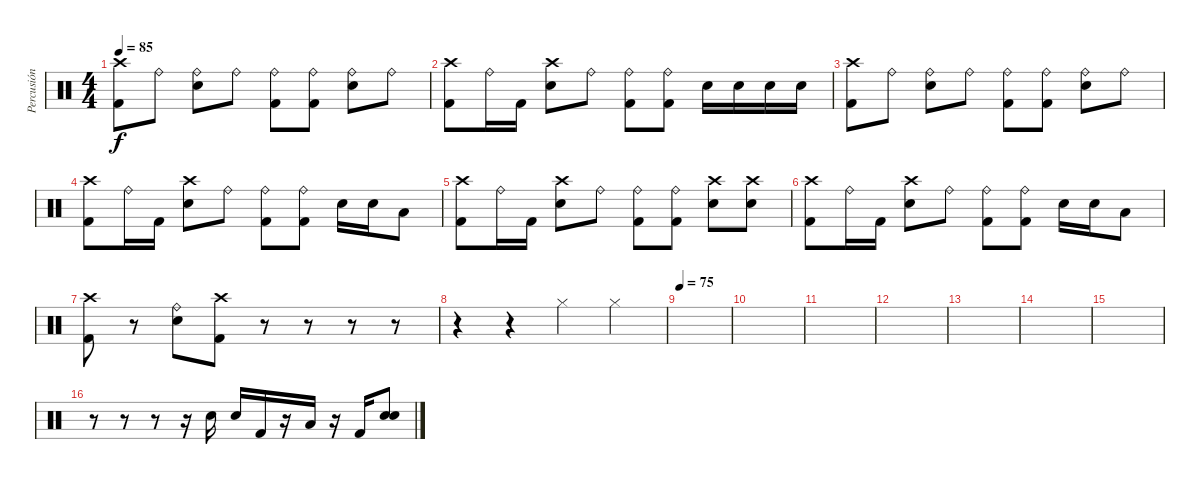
\track ("Percusión" "Percusión") {instrument percussion}
\staff {score}
\articulation defaults
\ts (4 4)
\tempo 85
\clef neutral
\ks c
("Crash high (hit)" "Kick (hit) 2").8{dy f} "Ride (bell)".8 ("Ride (bell)" "Electric Snare (hit)").8 "Ride (bell)".8 ("Ride (bell)" "Kick (hit) 2").8 ("Ride (bell)" "Kick (hit) 2").8 ("Ride (bell)" "Electric Snare (hit)").8 "Ride (bell)".8 |
("Crash high (hit)" "Kick (hit) 2").8 "Ride (bell)".16 "Kick (hit) 2".16 ("Crash high (hit)" "Electric Snare (hit)").8 "Ride (bell)".8 ("Ride (bell)" "Kick (hit) 2").8 ("Ride (bell)" "Kick (hit) 2").8 "Electric Snare (hit)".16 "Electric Snare (hit)".16 "Electric Snare (hit)".16 "Electric Snare (hit)".16 |
("Crash high (hit)" "Kick (hit) 2").8 "Ride (bell)".8 ("Ride (bell)" "Electric Snare (hit)").8 "Ride (bell)".8 ("Ride (bell)" "Kick (hit) 2").8 ("Ride (bell)" "Kick (hit) 2").8 ("Ride (bell)" "Electric Snare (hit)").8 "Ride (bell)".8 |
("Crash high (hit)" "Kick (hit) 2").8 "Ride (bell)".16 "Kick (hit) 2".16 ("Crash high (hit)" "Electric Snare (hit)").8 "Ride (bell)".8 ("Ride (bell)" "Kick (hit) 2").8 ("Ride (bell)" "Kick (hit) 2").8 "Electric Snare (hit)".16 "Electric Snare (hit)".16 "Low Tom (hit)".8 |
("Crash high (hit)" "Kick (hit) 2").8 "Ride (bell)".16 "Kick (hit) 2".16 ("Crash high (hit)" "Electric Snare (hit)").8 "Ride (bell)".8 ("Ride (bell)" "Kick (hit) 2").8 ("Ride (bell)" "Kick (hit) 2").8 ("Crash high (hit)" "Electric Snare (hit)").8 ("Crash high (hit)" "Electric Snare (hit)").8 |
("Crash high (hit)" "Kick (hit) 2").8 "Ride (bell)".16 "Kick (hit) 2".16 ("Crash high (hit)" "Electric Snare (hit)").8 "Ride (bell)".8 ("Ride (bell)" "Kick (hit) 2").8 ("Ride (bell)" "Kick (hit) 2").8 "Electric Snare (hit)".16 "Electric Snare (hit)".16 "Low Tom (hit)".8 |
("Crash high (hit)" "Kick (hit) 2").8 r.8 ("Ride (bell)" "Electric Snare (hit)").8 ("Crash high (hit)" "Kick (hit) 2").8 r.8 r.8 r.8 r.8 |
r.4 r.4 "Hi-Hat (closed)".4 "Hi-Hat (closed)".4 |
\tempo 75
|
|
|
|
|
|
|
r.8 r.8 r.8 r.16 "Electric Snare (hit)".16 "Electric Snare (hit)".16 "Kick (hit) 2".16 r.16 "Low Tom (hit)".16 r.16 "Kick (hit) 2".16 ("Electric Snare (hit)" "Electric Snare (hit)").8
